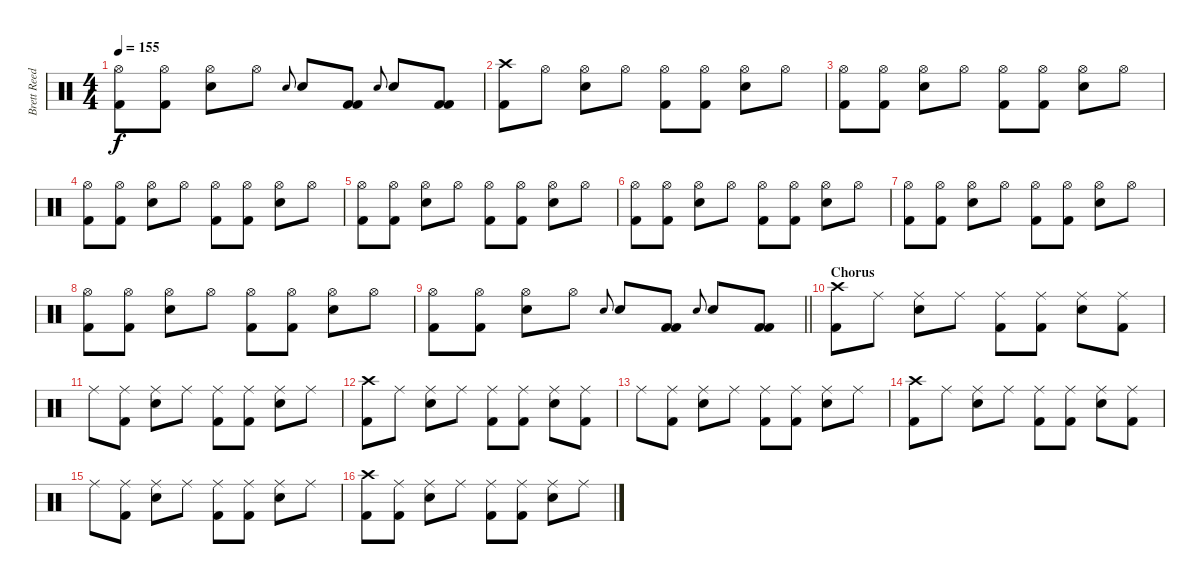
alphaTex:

\track ("Brett Reed" "Brett Reed") {instrument percussion}
\staff {score}
\articulation defaults
\ts (4 4)
\tempo 155
\clef neutral
\ks c
("Hi-Hat (open)" "Kick (hit) 2").8{dy f} ("Hi-Hat (open)" "Kick (hit) 2").8 ("Hi-Hat (open)" "Electric Snare (hit)").8 "Hi-Hat (open)".8 "Electric Snare (hit)".8{gr onbeat} "Electric Snare (hit)".8 ("Kick (hit) 2" "Kick (hit) 2").8 "Electric Snare (hit)".8{gr onbeat} "Electric Snare (hit)".8 ("Kick (hit) 2" "Kick (hit) 2").8 |
("Crash high (hit)" "Kick (hit) 2").8 "Hi-Hat (open)".8 ("Hi-Hat (open)" "Electric Snare (hit)").8 "Hi-Hat (open)".8 ("Hi-Hat (open)" "Kick (hit) 2").8 ("Hi-Hat (open)" "Kick (hit) 2").8 ("Hi-Hat (open)" "Electric Snare (hit)").8 "Hi-Hat (open)".8 |
("Hi-Hat (open)" "Kick (hit) 2").8 ("Hi-Hat (open)" "Kick (hit) 2").8 ("Hi-Hat (open)" "Electric Snare (hit)").8 "Hi-Hat (open)".8 ("Hi-Hat (open)" "Kick (hit) 2").8 ("Hi-Hat (open)" "Kick (hit) 2").8 ("Hi-Hat (open)" "Electric Snare (hit)").8 "Hi-Hat (open)".8 |
("Hi-Hat (open)" "Kick (hit) 2").8 ("Hi-Hat (open)" "Kick (hit) 2").8 ("Hi-Hat (open)" "Electric Snare (hit)").8 "Hi-Hat (open)".8 ("Hi-Hat (open)" "Kick (hit) 2").8 ("Hi-Hat (open)" "Kick (hit) 2").8 ("Hi-Hat (open)" "Electric Snare (hit)").8 "Hi-Hat (open)".8 |
("Hi-Hat (open)" "Kick (hit) 2").8 ("Hi-Hat (open)" "Kick (hit) 2").8 ("Hi-Hat (open)" "Electric Snare (hit)").8 "Hi-Hat (open)".8 ("Hi-Hat (open)" "Kick (hit) 2").8 ("Hi-Hat (open)" "Kick (hit) 2").8 ("Hi-Hat (open)" "Electric Snare (hit)").8 "Hi-Hat (open)".8 |
("Hi-Hat (open)" "Kick (hit) 2").8 ("Hi-Hat (open)" "Kick (hit) 2").8 ("Hi-Hat (open)" "Electric Snare (hit)").8 "Hi-Hat (open)".8 ("Hi-Hat (open)" "Kick (hit) 2").8 ("Hi-Hat (open)" "Kick (hit) 2").8 ("Hi-Hat (open)" "Electric Snare (hit)").8 "Hi-Hat (open)".8 |
("Hi-Hat (open)" "Kick (hit) 2").8 ("Hi-Hat (open)" "Kick (hit) 2").8 ("Hi-Hat (open)" "Electric Snare (hit)").8 "Hi-Hat (open)".8 ("Hi-Hat (open)" "Kick (hit) 2").8 ("Hi-Hat (open)" "Kick (hit) 2").8 ("Hi-Hat (open)" "Electric Snare (hit)").8 "Hi-Hat (open)".8 |
("Hi-Hat (open)" "Kick (hit) 2").8 ("Hi-Hat (open)" "Kick (hit) 2").8 ("Hi-Hat (open)" "Electric Snare (hit)").8 "Hi-Hat (open)".8 ("Hi-Hat (open)" "Kick (hit) 2").8 ("Hi-Hat (open)" "Kick (hit) 2").8 ("Hi-Hat (open)" "Electric Snare (hit)").8 "Hi-Hat (open)".8 |
\barLineRight lightlight
("Hi-Hat (open)" "Kick (hit) 2").8 ("Hi-Hat (open)" "Kick (hit) 2").8 ("Hi-Hat (open)" "Electric Snare (hit)").8 "Hi-Hat (open)".8 "Electric Snare (hit)".8{gr onbeat} "Electric Snare (hit)".8 ("Kick (hit) 2" "Kick (hit) 2").8 "Electric Snare (hit)".8{gr onbeat} "Electric Snare (hit)".8 ("Kick (hit) 2" "Kick (hit) 2").8 |
\section ("" "Chorus")
("Crash high (hit)" "Kick (hit) 2").8 "Ride (middle)".8 ("Ride (middle)" "Electric Snare (hit)").8 "Ride (middle)".8 ("Ride (middle)" "Kick (hit) 2").8 ("Ride (middle)" "Kick (hit) 2").8 ("Ride (middle)" "Electric Snare (hit)").8 ("Ride (middle)" "Kick (hit) 2").8 |
"Ride (middle)".8 ("Ride (middle)" "Kick (hit) 2").8 ("Ride (middle)" "Electric Snare (hit)").8 "Ride (middle)".8 ("Ride (middle)" "Kick (hit) 2").8 ("Ride (middle)" "Kick (hit) 2").8 ("Ride (middle)" "Electric Snare (hit)").8 "Ride (middle)".8 |
("Crash high (hit)" "Kick (hit) 2").8 "Ride (middle)".8 ("Ride (middle)" "Electric Snare (hit)").8 "Ride (middle)".8 ("Ride (middle)" "Kick (hit) 2").8 ("Ride (middle)" "Kick (hit) 2").8 ("Ride (middle)" "Electric Snare (hit)").8 ("Ride (middle)" "Kick (hit) 2").8 |
"Ride (middle)".8 ("Ride (middle)" "Kick (hit) 2").8 ("Ride (middle)" "Electric Snare (hit)").8 "Ride (middle)".8 ("Ride (middle)" "Kick (hit) 2").8 ("Ride (middle)" "Kick (hit) 2").8 ("Ride (middle)" "Electric Snare (hit)").8 "Ride (middle)".8 |
("Crash high (hit)" "Kick (hit) 2").8 "Ride (middle)".8 ("Ride (middle)" "Electric Snare (hit)").8 "Ride (middle)".8 ("Ride (middle)" "Kick (hit) 2").8 ("Ride (middle)" "Kick (hit) 2").8 ("Ride (middle)" "Electric Snare (hit)").8 ("Ride (middle)" "Kick (hit) 2").8 |
"Ride (middle)".8 ("Ride (middle)" "Kick (hit) 2").8 ("Ride (middle)" "Electric Snare (hit)").8 "Ride (middle)".8 ("Ride (middle)" "Kick (hit) 2").8 ("Ride (middle)" "Kick (hit) 2").8 ("Ride (middle)" "Electric Snare (hit)").8 "Ride (middle)".8 |
("Crash high (hit)" "Kick (hit) 2").8 ("Ride (middle)" "Kick (hit) 2").8 ("Ride (middle)" "Electric Snare (hit)").8 "Ride (middle)".8 ("Ride (middle)" "Kick (hit) 2").8 ("Ride (middle)" "Kick (hit) 2").8 ("Ride (middle)" "Electric Snare (hit)").8 "Ride (middle)".8
